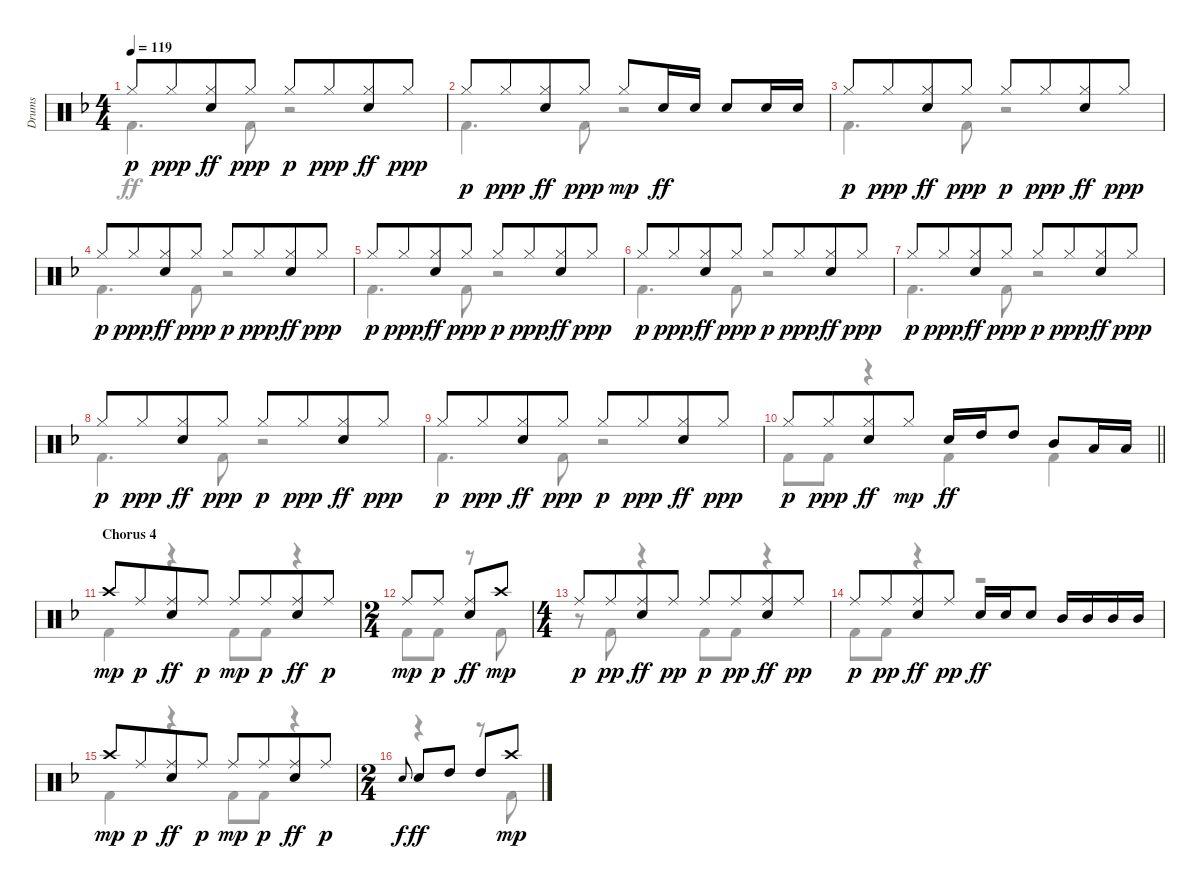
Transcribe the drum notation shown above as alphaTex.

\track ("Drums" "Drums") {instrument percussion}
\staff {score}
\articulation defaults
\voice
\ts (4 4)
\tempo 119
\clef neutral
\ks f "Hi-Hat (closed)".8{dy p} "Hi-Hat (closed)".8{dy ppp beam merge}
("Hi-Hat (closed)" "Electric Snare (hit)").8{dy ff} "Hi-Hat (closed)".8{dy ppp} "Hi-Hat (closed)".8{dy p} "Hi-Hat (closed)".8{dy ppp beam merge} ("Hi-Hat (closed)" "Electric Snare (hit)").8{dy ff} "Hi-Hat (closed)".8{dy ppp} |
"Hi-Hat (closed)".8{dy p} "Hi-Hat (closed)".8{dy ppp beam merge} ("Hi-Hat (closed)" "Electric Snare (hit)").8{dy ff} "Hi-Hat (closed)".8{dy ppp} "Hi-Hat (closed)".8{dy mp} "Electric Snare (hit)".16{dy ff} "Electric Snare (hit)".16 "Electric Snare (hit)".8 "Electric Snare (hit)".16 "Electric Snare (hit)".16 |
"Hi-Hat (closed)".8{dy p} "Hi-Hat (closed)".8{dy ppp beam merge} ("Hi-Hat (closed)" "Electric Snare (hit)").8{dy ff} "Hi-Hat (closed)".8{dy ppp} "Hi-Hat (closed)".8{dy p} "Hi-Hat (closed)".8{dy ppp beam merge} ("Hi-Hat (closed)" "Electric Snare (hit)").8{dy ff} "Hi-Hat (closed)".8{dy ppp} |
"Hi-Hat (closed)".8{dy p} "Hi-Hat (closed)".8{dy ppp beam merge} ("Hi-Hat (closed)" "Electric Snare (hit)").8{dy ff} "Hi-Hat (closed)".8{dy ppp} "Hi-Hat (closed)".8{dy p} "Hi-Hat (closed)".8{dy ppp beam merge} ("Hi-Hat (closed)" "Electric Snare (hit)").8{dy ff} "Hi-Hat (closed)".8{dy ppp} |
"Hi-Hat (closed)".8{dy p} "Hi-Hat (closed)".8{dy ppp beam merge} ("Hi-Hat (closed)" "Electric Snare (hit)").8{dy ff} "Hi-Hat (closed)".8{dy ppp} "Hi-Hat (closed)".8{dy p} "Hi-Hat (closed)".8{dy ppp beam merge} ("Hi-Hat (closed)" "Electric Snare (hit)").8{dy ff} "Hi-Hat (closed)".8{dy ppp} |
"Hi-Hat (closed)".8{dy p} "Hi-Hat (closed)".8{dy ppp beam merge} ("Hi-Hat (closed)" "Electric Snare (hit)").8{dy ff} "Hi-Hat (closed)".8{dy ppp} "Hi-Hat (closed)".8{dy p} "Hi-Hat (closed)".8{dy ppp beam merge} ("Hi-Hat (closed)" "Electric Snare (hit)").8{dy ff} "Hi-Hat (closed)".8{dy ppp} |
"Hi-Hat (closed)".8{dy p} "Hi-Hat (closed)".8{dy ppp beam merge} ("Hi-Hat (closed)" "Electric Snare (hit)").8{dy ff} "Hi-Hat (closed)".8{dy ppp} "Hi-Hat (closed)".8{dy p} "Hi-Hat (closed)".8{dy ppp beam merge} ("Hi-Hat (closed)" "Electric Snare (hit)").8{dy ff} "Hi-Hat (closed)".8{dy ppp} |
"Hi-Hat (closed)".8{dy p} "Hi-Hat (closed)".8{dy ppp beam merge} ("Hi-Hat (closed)" "Electric Snare (hit)").8{dy ff} "Hi-Hat (closed)".8{dy ppp} "Hi-Hat (closed)".8{dy p} "Hi-Hat (closed)".8{dy ppp beam merge} ("Hi-Hat (closed)" "Electric Snare (hit)").8{dy ff} "Hi-Hat (closed)".8{dy ppp} |
"Hi-Hat (closed)".8{dy p} "Hi-Hat (closed)".8{dy ppp beam merge} ("Hi-Hat (closed)" "Electric Snare (hit)").8{dy ff} "Hi-Hat (closed)".8{dy ppp} "Hi-Hat (closed)".8{dy p} "Hi-Hat (closed)".8{dy ppp beam merge} ("Hi-Hat (closed)" "Electric Snare (hit)").8{dy ff} "Hi-Hat (closed)".8{dy ppp} |
\barLineRight lightlight "Hi-Hat (closed)".8{dy p} "Hi-Hat (closed)".8{dy ppp beam merge}
("Hi-Hat (closed)" "Electric Snare (hit)").8{dy ff} "Hi-Hat (closed)".8{dy mp} "Electric Snare (hit)".16{dy ff} "High Tom (hit)".16 "High Tom (hit)".8 "Mid Tom (hit)".8 "Low Tom (hit)".16 "Low Tom (hit)".16 |
\section ("" "Chorus 4")
"Crash high (hit)".8{dy mp} "Ride (middle)".8{dy p beam merge} ("Ride (middle)" "Electric Snare (hit)").8{dy ff} "Ride (middle)".8{dy p} "Ride (middle)".8{dy mp} "Ride (middle)".8{dy p beam merge} ("Ride (middle)" "Electric Snare (hit)").8{dy ff} "Ride (middle)".8{dy p} |
\ts (2 4)
"Ride (middle)".8{dy mp} "Ride (middle)".8{dy p beam split} ("Ride (middle)" "Electric Snare (hit)").8{dy ff} "Crash high (hit)".8{dy mp} |
\ts (4 4)
"Ride (middle)".8{dy p} "Ride (middle)".8{dy pp beam merge} ("Ride (middle)" "Electric Snare (hit)").8{dy ff} "Ride (middle)".8{dy pp} "Ride (middle)".8{dy p} "Ride (middle)".8{dy pp beam merge} ("Ride (middle)" "Electric Snare (hit)").8{dy ff} "Ride (middle)".8{dy pp} |
"Ride (middle)".8{dy p} "Ride (middle)".8{dy pp beam merge} ("Ride (middle)" "Electric Snare (hit)").8{dy ff} "Ride (middle)".8{dy pp} "Electric Snare (hit)".16{dy ff} "Electric Snare (hit)".16 "Electric Snare (hit)".8 "Mid Tom (hit)".16 "Mid Tom (hit)".16 "Mid Tom (hit)".16 "Mid Tom (hit)".16 |
"Crash high (hit)".8{dy mp} "Ride (middle)".8{dy p beam merge} ("Ride (middle)" "Electric Snare (hit)").8{dy ff} "Ride (middle)".8{dy p} "Ride (middle)".8{dy mp} "Ride (middle)".8{dy p beam merge} ("Ride (middle)" "Electric Snare (hit)").8{dy ff} "Ride (middle)".8{dy p} |
\ts (2 4)
"Electric Snare (hit)".8{gr onbeat dy f} "Electric Snare (hit)".8{dy ff} "High Tom (hit)".8{beam split} "High Tom (hit)".8 "Crash high (hit)".8{dy mp}
\voice
\clef neutral
\ottava regular
\simile none
\ks f "Kick (hit) 2".4{d dy ff} "Kick (hit) 2".8
r.2 |
"Kick (hit) 2".4{d} "Kick (hit) 2".8 r.2 |
"Kick (hit) 2".4{d} "Kick (hit) 2".8 r.2 |
"Kick (hit) 2".4{d} "Kick (hit) 2".8 r.2 |
"Kick (hit) 2".4{d} "Kick (hit) 2".8 r.2 |
"Kick (hit) 2".4{d} "Kick (hit) 2".8 r.2 |
"Kick (hit) 2".4{d} "Kick (hit) 2".8 r.2 |
"Kick (hit) 2".4{d} "Kick (hit) 2".8 r.2 |
"Kick (hit) 2".4{d} "Kick (hit) 2".8 r.2 |
\barLineRight lightlight "Kick (hit) 2".8 "Kick (hit) 2".8
r.4 "Kick (hit) 2".4 "Kick (hit) 2".4 |
"Kick (hit) 2".4 r.4 "Kick (hit) 2".8 "Kick (hit) 2".8 r.4 |
"Kick (hit) 2".8 "Kick (hit) 2".8 r.8 "Kick (hit) 2".8 |
r.8 "Kick (hit) 2".8 r.4 "Kick (hit) 2".8 "Kick (hit) 2".8 r.4 |
"Kick (hit) 2".8 "Kick (hit) 2".8 r.4 r.2 |
"Kick (hit) 2".4 r.4 "Kick (hit) 2".8 "Kick (hit) 2".8 r.4 |
r.4 r.8 "Kick (hit) 2".8
